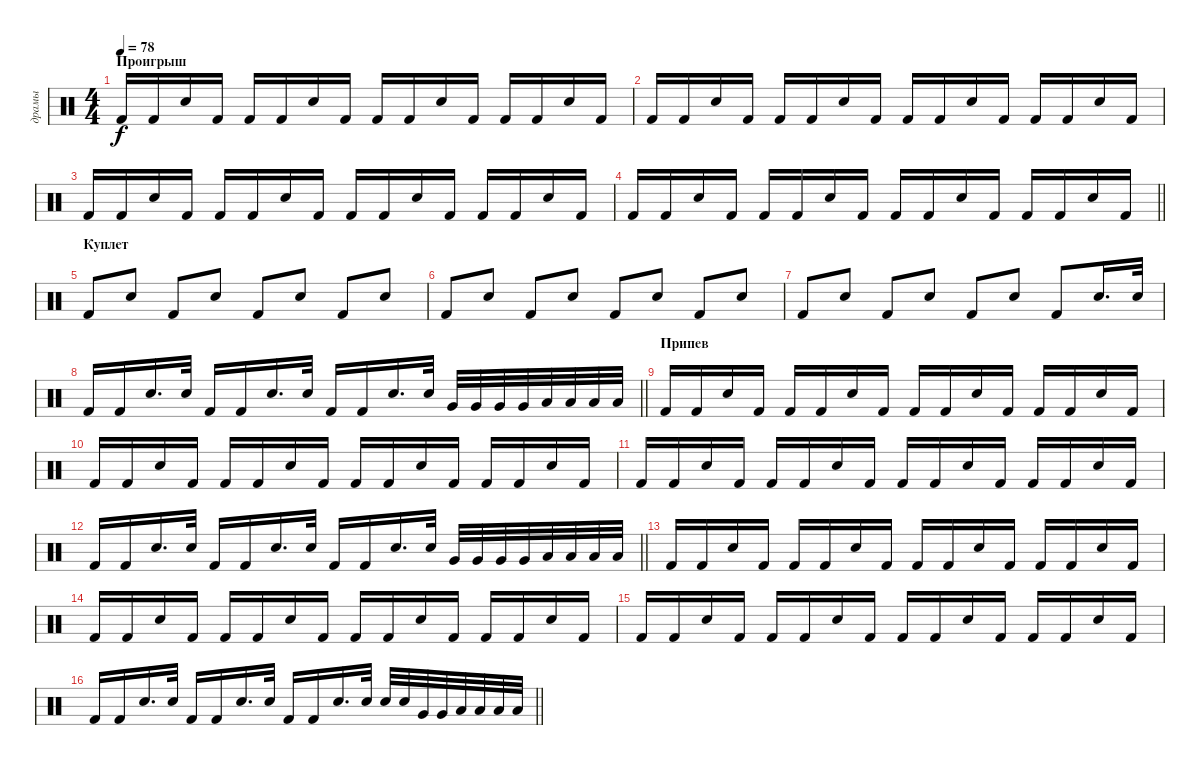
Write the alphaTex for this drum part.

\track ("драмы" "драмы") {instrument percussion}
\staff {score}
\articulation defaults
\ts (4 4)
\section ("" "Проигрыш")
\tempo 78
\clef neutral
\ks c "Kick (hit) 2".16{dy f} "Kick (hit) 2".16 "Electric Snare (hit)".16 "Kick (hit) 2".16 "Kick (hit) 2".16 "Kick (hit) 2".16 "Electric Snare (hit)".16 "Kick (hit) 2".16 "Kick (hit) 2".16 "Kick (hit) 2".16 "Electric Snare (hit)".16 "Kick (hit) 2".16 "Kick (hit) 2".16 "Kick (hit) 2".16 "Electric Snare (hit)".16 "Kick (hit) 2".16
|
"Kick (hit) 2".16 "Kick (hit) 2".16 "Electric Snare (hit)".16 "Kick (hit) 2".16 "Kick (hit) 2".16 "Kick (hit) 2".16 "Electric Snare (hit)".16 "Kick (hit) 2".16 "Kick (hit) 2".16 "Kick (hit) 2".16 "Electric Snare (hit)".16 "Kick (hit) 2".16 "Kick (hit) 2".16 "Kick (hit) 2".16 "Electric Snare (hit)".16 "Kick (hit) 2".16 |
"Kick (hit) 2".16 "Kick (hit) 2".16 "Electric Snare (hit)".16 "Kick (hit) 2".16 "Kick (hit) 2".16 "Kick (hit) 2".16 "Electric Snare (hit)".16 "Kick (hit) 2".16 "Kick (hit) 2".16 "Kick (hit) 2".16 "Electric Snare (hit)".16 "Kick (hit) 2".16 "Kick (hit) 2".16 "Kick (hit) 2".16 "Electric Snare (hit)".16 "Kick (hit) 2".16 |
\barLineRight lightlight "Kick (hit) 2".16 "Kick (hit) 2".16 "Electric Snare (hit)".16 "Kick (hit) 2".16 "Kick (hit) 2".16 "Kick (hit) 2".16 "Electric Snare (hit)".16 "Kick (hit) 2".16 "Kick (hit) 2".16 "Kick (hit) 2".16 "Electric Snare (hit)".16 "Kick (hit) 2".16 "Kick (hit) 2".16 "Kick (hit) 2".16 "Electric Snare (hit)".16 "Kick (hit) 2".16
|
\section ("" "Куплет")
"Kick (hit) 2".8 "Electric Snare (hit)".8 "Kick (hit) 2".8 "Electric Snare (hit)".8 "Kick (hit) 2".8 "Electric Snare (hit)".8 "Kick (hit) 2".8 "Electric Snare (hit)".8 |
"Kick (hit) 2".8 "Electric Snare (hit)".8 "Kick (hit) 2".8 "Electric Snare (hit)".8 "Kick (hit) 2".8 "Electric Snare (hit)".8 "Kick (hit) 2".8 "Electric Snare (hit)".8 |
"Kick (hit) 2".8 "Electric Snare (hit)".8 "Kick (hit) 2".8 "Electric Snare (hit)".8 "Kick (hit) 2".8 "Electric Snare (hit)".8 "Kick (hit) 2".8 "Electric Snare (hit)".16{d} "Electric Snare (hit)".32 |
\barLineRight lightlight "Kick (hit) 2".16 "Kick (hit) 2".16 "Electric Snare (hit)".16{d} "Electric Snare (hit)".32 "Kick (hit) 2".16 "Kick (hit) 2".16 "Electric Snare (hit)".16{d} "Electric Snare (hit)".32 "Kick (hit) 2".16 "Kick (hit) 2".16 "Electric Snare (hit)".16{d} "Electric Snare (hit)".32 "Very Low Tom (hit)".32 "Very Low Tom (hit)".32 "Very Low Tom (hit)".32 "Very Low Tom (hit)".32 "Low Tom (hit)".32 "Low Tom (hit)".32 "Low Tom (hit)".32 "Low Tom (hit)".32
|
\section ("" "Припев")
"Kick (hit) 2".16 "Kick (hit) 2".16 "Electric Snare (hit)".16 "Kick (hit) 2".16 "Kick (hit) 2".16 "Kick (hit) 2".16 "Electric Snare (hit)".16 "Kick (hit) 2".16 "Kick (hit) 2".16 "Kick (hit) 2".16 "Electric Snare (hit)".16 "Kick (hit) 2".16 "Kick (hit) 2".16 "Kick (hit) 2".16 "Electric Snare (hit)".16 "Kick (hit) 2".16 |
"Kick (hit) 2".16 "Kick (hit) 2".16 "Electric Snare (hit)".16 "Kick (hit) 2".16 "Kick (hit) 2".16 "Kick (hit) 2".16 "Electric Snare (hit)".16 "Kick (hit) 2".16 "Kick (hit) 2".16 "Kick (hit) 2".16 "Electric Snare (hit)".16 "Kick (hit) 2".16 "Kick (hit) 2".16 "Kick (hit) 2".16 "Electric Snare (hit)".16 "Kick (hit) 2".16 |
"Kick (hit) 2".16 "Kick (hit) 2".16 "Electric Snare (hit)".16 "Kick (hit) 2".16 "Kick (hit) 2".16 "Kick (hit) 2".16 "Electric Snare (hit)".16 "Kick (hit) 2".16 "Kick (hit) 2".16 "Kick (hit) 2".16 "Electric Snare (hit)".16 "Kick (hit) 2".16 "Kick (hit) 2".16 "Kick (hit) 2".16 "Electric Snare (hit)".16 "Kick (hit) 2".16 |
\barLineRight lightlight "Kick (hit) 2".16 "Kick (hit) 2".16 "Electric Snare (hit)".16{d} "Electric Snare (hit)".32 "Kick (hit) 2".16 "Kick (hit) 2".16 "Electric Snare (hit)".16{d} "Electric Snare (hit)".32 "Kick (hit) 2".16 "Kick (hit) 2".16 "Electric Snare (hit)".16{d} "Electric Snare (hit)".32 "Very Low Tom (hit)".32 "Very Low Tom (hit)".32 "Very Low Tom (hit)".32 "Very Low Tom (hit)".32 "Low Tom (hit)".32 "Low Tom (hit)".32 "Low Tom (hit)".32 "Low Tom (hit)".32
|
"Kick (hit) 2".16 "Kick (hit) 2".16 "Electric Snare (hit)".16 "Kick (hit) 2".16 "Kick (hit) 2".16 "Kick (hit) 2".16 "Electric Snare (hit)".16 "Kick (hit) 2".16 "Kick (hit) 2".16 "Kick (hit) 2".16 "Electric Snare (hit)".16 "Kick (hit) 2".16 "Kick (hit) 2".16 "Kick (hit) 2".16 "Electric Snare (hit)".16 "Kick (hit) 2".16 |
"Kick (hit) 2".16 "Kick (hit) 2".16 "Electric Snare (hit)".16 "Kick (hit) 2".16 "Kick (hit) 2".16 "Kick (hit) 2".16 "Electric Snare (hit)".16 "Kick (hit) 2".16 "Kick (hit) 2".16 "Kick (hit) 2".16 "Electric Snare (hit)".16 "Kick (hit) 2".16 "Kick (hit) 2".16 "Kick (hit) 2".16 "Electric Snare (hit)".16 "Kick (hit) 2".16 |
"Kick (hit) 2".16 "Kick (hit) 2".16 "Electric Snare (hit)".16 "Kick (hit) 2".16 "Kick (hit) 2".16 "Kick (hit) 2".16 "Electric Snare (hit)".16 "Kick (hit) 2".16 "Kick (hit) 2".16 "Kick (hit) 2".16 "Electric Snare (hit)".16 "Kick (hit) 2".16 "Kick (hit) 2".16 "Kick (hit) 2".16 "Electric Snare (hit)".16 "Kick (hit) 2".16 |
\barLineRight lightlight "Kick (hit) 2".16 "Kick (hit) 2".16 "Electric Snare (hit)".16{d} "Electric Snare (hit)".32 "Kick (hit) 2".16 "Kick (hit) 2".16 "Electric Snare (hit)".16{d} "Electric Snare (hit)".32 "Kick (hit) 2".16 "Kick (hit) 2".16 "Electric Snare (hit)".16{d} "Electric Snare (hit)".32 "Electric Snare (hit)".32 "Electric Snare (hit)".32 "Very Low Tom (hit)".32 "Very Low Tom (hit)".32 "Low Tom (hit)".32 "Low Tom (hit)".32 "Low Tom (hit)".32 "Low Tom (hit)".32
